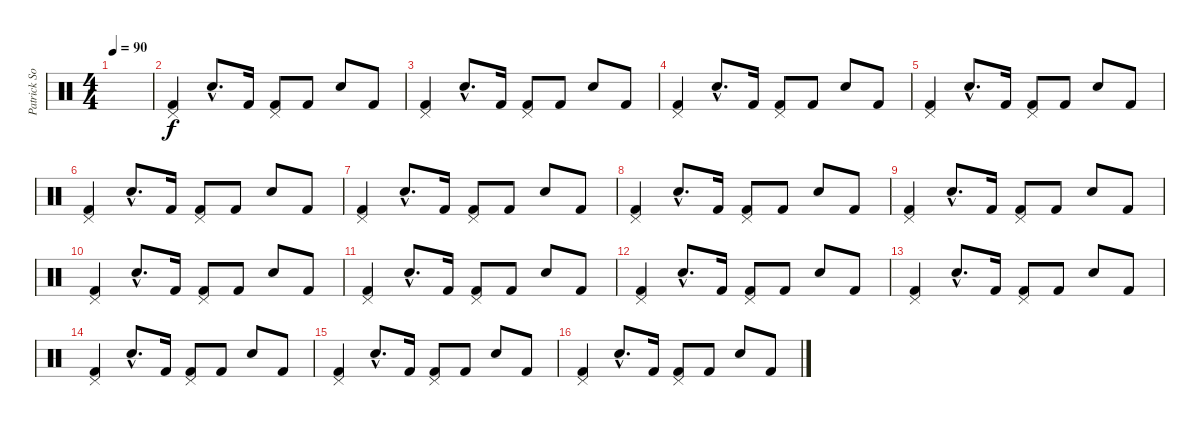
\track ("Patrick Soria" "Patrick So") {instrument percussion}
\staff {score}
\articulation defaults
\ts (4 4)
\tempo 90
\clef neutral
\ks c
|
("Pedal Hi-Hat (hit)" "Kick (hit) 2").4 "Snare (hit) 2"{hac}.8{d} "Kick (hit) 2".16 ("Pedal Hi-Hat (hit)" "Kick (hit) 2").8 "Kick (hit) 2".8 "Snare (hit) 2".8 "Kick (hit) 2".8 |
("Pedal Hi-Hat (hit)" "Kick (hit) 2").4 "Snare (hit) 2"{hac}.8{d} "Kick (hit) 2".16 ("Pedal Hi-Hat (hit)" "Kick (hit) 2").8 "Kick (hit) 2".8 "Snare (hit) 2".8 "Kick (hit) 2".8 |
("Pedal Hi-Hat (hit)" "Kick (hit) 2").4 "Snare (hit) 2"{hac}.8{d} "Kick (hit) 2".16 ("Pedal Hi-Hat (hit)" "Kick (hit) 2").8 "Kick (hit) 2".8 "Snare (hit) 2".8 "Kick (hit) 2".8 |
("Pedal Hi-Hat (hit)" "Kick (hit) 2").4 "Snare (hit) 2"{hac}.8{d} "Kick (hit) 2".16 ("Pedal Hi-Hat (hit)" "Kick (hit) 2").8 "Kick (hit) 2".8 "Snare (hit) 2".8 "Kick (hit) 2".8 |
("Pedal Hi-Hat (hit)" "Kick (hit) 2").4 "Snare (hit) 2"{hac}.8{d} "Kick (hit) 2".16 ("Pedal Hi-Hat (hit)" "Kick (hit) 2").8 "Kick (hit) 2".8 "Snare (hit) 2".8 "Kick (hit) 2".8 |
("Pedal Hi-Hat (hit)" "Kick (hit) 2").4 "Snare (hit) 2"{hac}.8{d} "Kick (hit) 2".16 ("Pedal Hi-Hat (hit)" "Kick (hit) 2").8 "Kick (hit) 2".8 "Snare (hit) 2".8 "Kick (hit) 2".8 |
("Pedal Hi-Hat (hit)" "Kick (hit) 2").4 "Snare (hit) 2"{hac}.8{d} "Kick (hit) 2".16 ("Pedal Hi-Hat (hit)" "Kick (hit) 2").8 "Kick (hit) 2".8 "Snare (hit) 2".8 "Kick (hit) 2".8 |
("Pedal Hi-Hat (hit)" "Kick (hit) 2").4 "Snare (hit) 2"{hac}.8{d} "Kick (hit) 2".16 ("Pedal Hi-Hat (hit)" "Kick (hit) 2").8 "Kick (hit) 2".8 "Snare (hit) 2".8 "Kick (hit) 2".8 |
("Pedal Hi-Hat (hit)" "Kick (hit) 2").4 "Snare (hit) 2"{hac}.8{d} "Kick (hit) 2".16 ("Pedal Hi-Hat (hit)" "Kick (hit) 2").8 "Kick (hit) 2".8 "Snare (hit) 2".8 "Kick (hit) 2".8 |
("Pedal Hi-Hat (hit)" "Kick (hit) 2").4 "Snare (hit) 2"{hac}.8{d} "Kick (hit) 2".16 ("Pedal Hi-Hat (hit)" "Kick (hit) 2").8 "Kick (hit) 2".8 "Snare (hit) 2".8 "Kick (hit) 2".8 |
("Pedal Hi-Hat (hit)" "Kick (hit) 2").4 "Snare (hit) 2"{hac}.8{d} "Kick (hit) 2".16 ("Pedal Hi-Hat (hit)" "Kick (hit) 2").8 "Kick (hit) 2".8 "Snare (hit) 2".8 "Kick (hit) 2".8 |
("Pedal Hi-Hat (hit)" "Kick (hit) 2").4 "Snare (hit) 2"{hac}.8{d} "Kick (hit) 2".16 ("Pedal Hi-Hat (hit)" "Kick (hit) 2").8 "Kick (hit) 2".8 "Snare (hit) 2".8 "Kick (hit) 2".8 |
("Pedal Hi-Hat (hit)" "Kick (hit) 2").4 "Snare (hit) 2"{hac}.8{d} "Kick (hit) 2".16 ("Pedal Hi-Hat (hit)" "Kick (hit) 2").8 "Kick (hit) 2".8 "Snare (hit) 2".8 "Kick (hit) 2".8 |
("Pedal Hi-Hat (hit)" "Kick (hit) 2").4 "Snare (hit) 2"{hac}.8{d} "Kick (hit) 2".16 ("Pedal Hi-Hat (hit)" "Kick (hit) 2").8 "Kick (hit) 2".8 "Snare (hit) 2".8 "Kick (hit) 2".8 |
("Pedal Hi-Hat (hit)" "Kick (hit) 2").4 "Snare (hit) 2"{hac}.8{d} "Kick (hit) 2".16 ("Pedal Hi-Hat (hit)" "Kick (hit) 2").8 "Kick (hit) 2".8 "Snare (hit) 2".8 "Kick (hit) 2".8
